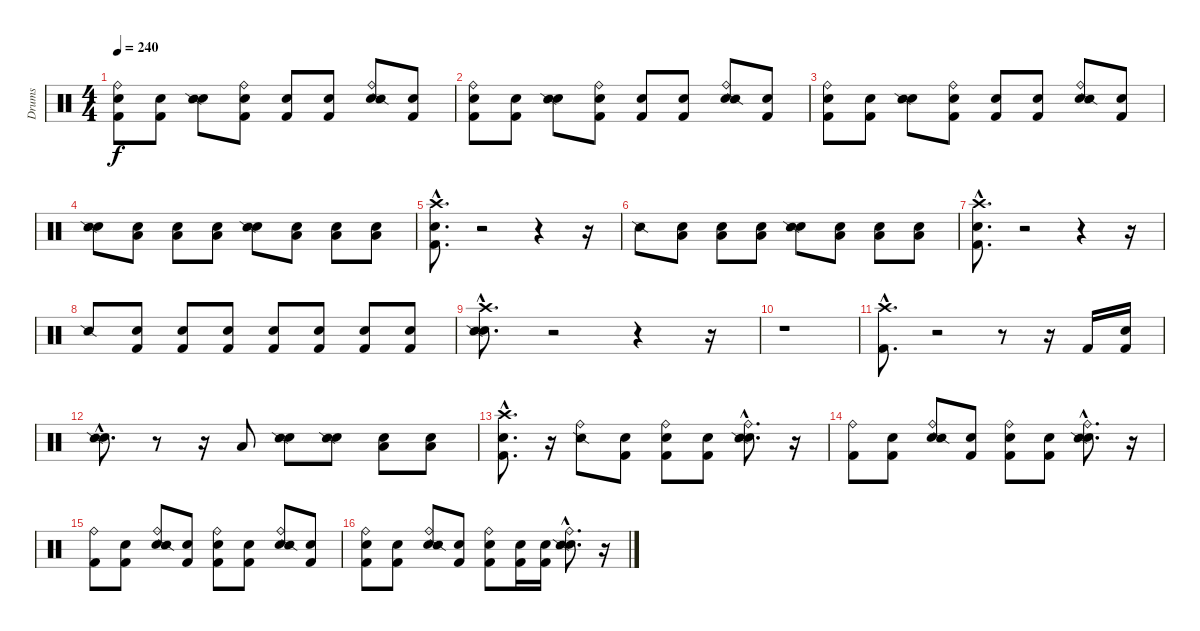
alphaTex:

\track ("Drums" "Drums") {instrument percussion}
\staff {score}
\articulation defaults
\ts (4 4)
\tempo 240
\clef neutral
\ks c
("Snare (hit)" "Kick (hit) 2" "Ride (bell)").8{dy f} ("Snare (hit)" "Kick (hit) 2").8 ("Snare (hit)" "Snare (side stick) 2").8 ("Snare (hit)" "Kick (hit) 2" "Ride (bell)").8 ("Snare (hit)" "Kick (hit) 2").8 ("Snare (hit)" "Kick (hit) 2").8 ("Snare (hit)" "Ride (bell)" "Snare (side stick) 2").8 ("Snare (hit)" "Kick (hit) 2").8 |
("Snare (hit)" "Kick (hit) 2" "Ride (bell)").8 ("Snare (hit)" "Kick (hit) 2").8 ("Snare (hit)" "Snare (side stick) 2").8 ("Snare (hit)" "Kick (hit) 2" "Ride (bell)").8 ("Snare (hit)" "Kick (hit) 2").8 ("Snare (hit)" "Kick (hit) 2").8 ("Snare (hit)" "Ride (bell)" "Snare (side stick) 2").8 ("Snare (hit)" "Kick (hit) 2").8 |
("Snare (hit)" "Kick (hit) 2" "Ride (bell)").8 ("Snare (hit)" "Kick (hit) 2").8 ("Snare (hit)" "Snare (side stick) 2").8 ("Snare (hit)" "Kick (hit) 2" "Ride (bell)").8 ("Snare (hit)" "Kick (hit) 2").8 ("Snare (hit)" "Kick (hit) 2").8 ("Snare (hit)" "Ride (bell)" "Snare (side stick) 2").8 ("Snare (hit)" "Kick (hit) 2").8 |
("Snare (hit)" "Snare (side stick) 2").8 ("Snare (hit)" "Low Tom (hit)").8 ("Snare (hit)" "Low Tom (hit)").8 ("Snare (hit)" "Low Tom (hit)").8 ("Snare (hit)" "Snare (side stick) 2").8 ("Snare (hit)" "Low Tom (hit)").8 ("Snare (hit)" "Low Tom (hit)").8 ("Snare (hit)" "Low Tom (hit)").8 |
("Snare (hit)"{hac} "Kick (hit) 2"{hac} "Crash high (hit)"{hac}).8{d} r.2 r.4 r.16 |
"Snare (side stick) 2".8 ("Snare (hit)" "Low Tom (hit)").8 ("Snare (hit)" "Low Tom (hit)").8 ("Snare (hit)" "Low Tom (hit)").8 ("Snare (hit)" "Snare (side stick) 2").8 ("Snare (hit)" "Low Tom (hit)").8 ("Snare (hit)" "Low Tom (hit)").8 ("Snare (hit)" "Low Tom (hit)").8 |
("Snare (hit)"{hac} "Kick (hit) 2"{hac} "Crash high (hit)"{hac}).8{d} r.2 r.4 r.16 |
"Snare (side stick) 2".8 ("Snare (hit)" "Kick (hit) 2").8 ("Snare (hit)" "Kick (hit) 2").8 ("Snare (hit)" "Kick (hit) 2").8 ("Snare (hit)" "Kick (hit) 2").8 ("Snare (hit)" "Kick (hit) 2").8 ("Snare (hit)" "Kick (hit) 2").8 ("Snare (hit)" "Kick (hit) 2").8 |
("Snare (hit)"{hac} "Snare (side stick) 2"{hac} "Crash high (hit)"{hac}).8{d} r.2 r.4 r.16 |
r.1 |
("Kick (hit) 2"{hac} "Crash high (hit)"{hac}).8{d} r.2 r.8 r.16 "Kick (hit) 2".16 ("Snare (hit)" "Kick (hit) 2").16 |
("Snare (hit)"{hac} "Snare (side stick) 2"{hac}).8{d} r.8 r.16 "Low Tom (hit)".8 ("Snare (hit)" "Snare (side stick) 2").8 ("Snare (hit)" "Snare (side stick) 2").8 ("Snare (hit)" "Low Tom (hit)").8 ("Snare (hit)" "Low Tom (hit)").8 |
("Snare (hit)"{hac} "Kick (hit) 2"{hac} "Crash high (hit)"{hac}).8{d} r.16 ("Ride (bell)" "Snare (side stick) 2").8 ("Snare (hit)" "Kick (hit) 2").8 ("Snare (hit)" "Kick (hit) 2" "Ride (bell)").8 ("Snare (hit)" "Kick (hit) 2").8 ("Snare (hit)"{hac} "Snare (side stick) 2"{hac} "Ride (bell)"{hac}).8{d} r.16 |
("Kick (hit) 2" "Ride (bell)").8 ("Snare (hit)" "Kick (hit) 2").8 ("Snare (hit)" "Ride (bell)" "Snare (side stick) 2").8 ("Snare (hit)" "Kick (hit) 2").8 ("Snare (hit)" "Kick (hit) 2" "Ride (bell)").8 ("Snare (hit)" "Kick (hit) 2").8 ("Snare (hit)"{hac} "Snare (side stick) 2"{hac} "Ride (bell)"{hac}).8{d} r.16 |
("Kick (hit) 2" "Ride (bell)").8 ("Snare (hit)" "Kick (hit) 2").8 ("Snare (hit)" "Ride (bell)" "Snare (side stick) 2").8 ("Snare (hit)" "Kick (hit) 2").8 ("Snare (hit)" "Kick (hit) 2" "Ride (bell)").8 ("Snare (hit)" "Kick (hit) 2").8 ("Snare (hit)" "Ride (bell)" "Snare (side stick) 2").8 ("Snare (hit)" "Kick (hit) 2").8 |
("Snare (hit)" "Kick (hit) 2" "Ride (bell)").8 ("Snare (hit)" "Kick (hit) 2").8 ("Snare (hit)" "Ride (bell)" "Snare (side stick) 2").8 ("Snare (hit)" "Kick (hit) 2").8 ("Snare (hit)" "Kick (hit) 2" "Ride (bell)").8 ("Snare (hit)" "Kick (hit) 2").16 ("Snare (hit)" "Kick (hit) 2").16 ("Snare (hit)"{hac} "Snare (side stick) 2"{hac} "Ride (bell)"{hac}).8{d} r.16
